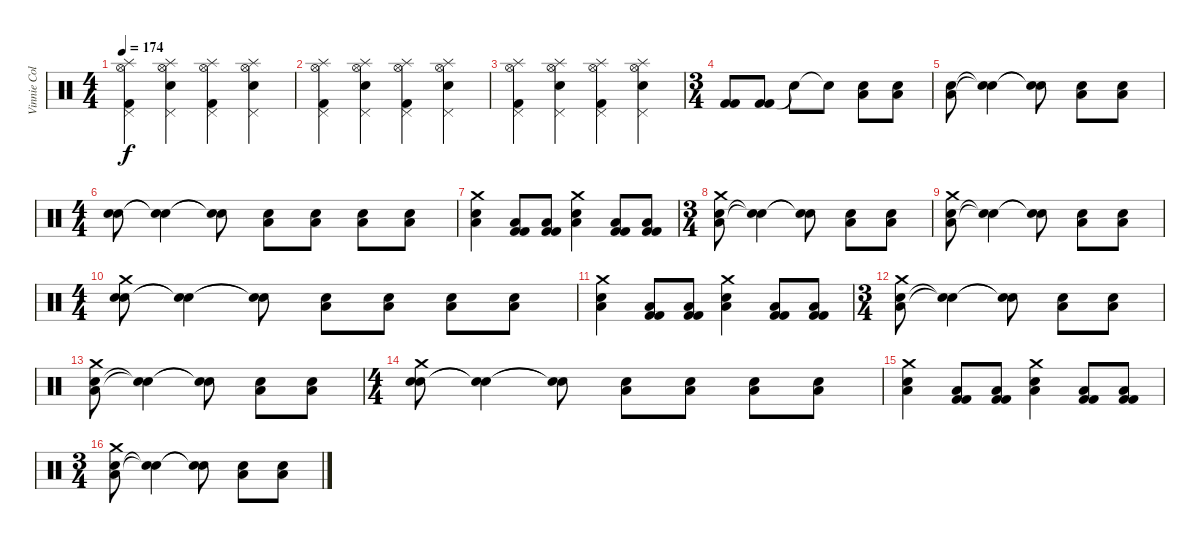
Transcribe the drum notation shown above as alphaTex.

\track ("Vinnie Colaiuta" "Vinnie Col") {instrument percussion}
\staff {score}
\articulation defaults
\ts (4 4)
\tempo 174
\clef neutral
\ks c
("Splash (hit)" "Kick (hit) 2" "Pedal Hi-Hat (hit)" "Hi-Hat (open)").4{dy f} ("Splash (hit)" "Snare (hit) 2" "Pedal Hi-Hat (hit)" "Hi-Hat (open)").4 ("Splash (hit)" "Kick (hit) 2" "Pedal Hi-Hat (hit)" "Hi-Hat (open)").4 ("Splash (hit)" "Snare (hit) 2" "Pedal Hi-Hat (hit)" "Hi-Hat (open)").4 |
("Splash (hit)" "Kick (hit) 2" "Pedal Hi-Hat (hit)" "Hi-Hat (open)").4 ("Splash (hit)" "Snare (hit) 2" "Pedal Hi-Hat (hit)" "Hi-Hat (open)").4 ("Splash (hit)" "Kick (hit) 2" "Pedal Hi-Hat (hit)" "Hi-Hat (open)").4 ("Splash (hit)" "Snare (hit) 2" "Pedal Hi-Hat (hit)" "Hi-Hat (open)").4 |
("Splash (hit)" "Kick (hit) 2" "Pedal Hi-Hat (hit)" "Hi-Hat (open)").4 ("Splash (hit)" "Snare (hit) 2" "Pedal Hi-Hat (hit)" "Hi-Hat (open)").4 ("Splash (hit)" "Kick (hit) 2" "Pedal Hi-Hat (hit)" "Hi-Hat (open)").4 ("Splash (hit)" "Snare (hit) 2" "Pedal Hi-Hat (hit)" "Hi-Hat (open)").4 |
\ts (3 4)
("Kick (hit) 2" "Kick (hit) 2").8 ("Kick (hit) 2" "Kick (hit) 2").8 "Snare (hit) 2"{t}.8 "Snare (hit) 2"{t}.8 ("Snare (hit) 2" "Low Tom (hit)").8 ("Snare (hit) 2" "Low Tom (hit)").8 |
("Snare (hit) 2" "Low Tom (hit)").8 ("Snare (hit) 2"{t} "Snare (hit) 2"{t}).4 ("Snare (hit) 2"{t} "Snare (hit) 2"{t}).8 ("Snare (hit) 2" "Low Tom (hit)").8 ("Snare (hit) 2" "Low Tom (hit)").8 |
\ts (4 4)
("Snare (hit) 2" "Snare (hit) 2").8 ("Snare (hit) 2"{t} "Snare (hit) 2"{t}).4 ("Snare (hit) 2"{t} "Snare (hit) 2"{t}).8 ("Snare (hit) 2" "Low Tom (hit)").8 ("Snare (hit) 2" "Low Tom (hit)").8 ("Snare (hit) 2" "Low Tom (hit)").8 ("Snare (hit) 2" "Low Tom (hit)").8 |
("Snare (hit) 2" "Low Tom (hit)" "Crash medium (hit)").4 ("Kick (hit) 2" "Kick (hit) 2" "Low Tom (hit)").8 ("Kick (hit) 2" "Kick (hit) 2" "Low Tom (hit)").8 ("Snare (hit) 2" "Low Tom (hit)" "Crash medium (hit)").4 ("Kick (hit) 2" "Kick (hit) 2" "Low Tom (hit)").8 ("Kick (hit) 2" "Kick (hit) 2" "Low Tom (hit)").8 |
\ts (3 4)
("Snare (hit) 2" "Low Tom (hit)" "Crash medium (hit)").8 ("Snare (hit) 2"{t} "Snare (hit) 2"{t}).4 ("Snare (hit) 2"{t} "Snare (hit) 2"{t}).8 ("Snare (hit) 2" "Low Tom (hit)").8 ("Snare (hit) 2" "Low Tom (hit)").8 |
("Snare (hit) 2" "Low Tom (hit)" "Crash medium (hit)").8 ("Snare (hit) 2"{t} "Snare (hit) 2"{t}).4 ("Snare (hit) 2"{t} "Snare (hit) 2"{t}).8 ("Snare (hit) 2" "Low Tom (hit)").8 ("Snare (hit) 2" "Low Tom (hit)").8 |
\ts (4 4)
("Snare (hit) 2" "Snare (hit) 2" "Crash medium (hit)").8 ("Snare (hit) 2"{t} "Snare (hit) 2"{t}).4 ("Snare (hit) 2"{t} "Snare (hit) 2"{t}).8 ("Snare (hit) 2" "Low Tom (hit)").8 ("Snare (hit) 2" "Low Tom (hit)").8 ("Snare (hit) 2" "Low Tom (hit)").8 ("Snare (hit) 2" "Low Tom (hit)").8 |
("Snare (hit) 2" "Low Tom (hit)" "Crash medium (hit)").4 ("Kick (hit) 2" "Kick (hit) 2" "Low Tom (hit)").8 ("Kick (hit) 2" "Kick (hit) 2" "Low Tom (hit)").8 ("Snare (hit) 2" "Low Tom (hit)" "Crash medium (hit)").4 ("Kick (hit) 2" "Kick (hit) 2" "Low Tom (hit)").8 ("Kick (hit) 2" "Kick (hit) 2" "Low Tom (hit)").8 |
\ts (3 4)
("Snare (hit) 2" "Low Tom (hit)" "Crash medium (hit)").8 ("Snare (hit) 2"{t} "Snare (hit) 2"{t}).4 ("Snare (hit) 2"{t} "Snare (hit) 2"{t}).8 ("Snare (hit) 2" "Low Tom (hit)").8 ("Snare (hit) 2" "Low Tom (hit)").8 |
("Snare (hit) 2" "Low Tom (hit)" "Crash medium (hit)").8 ("Snare (hit) 2"{t} "Snare (hit) 2"{t}).4 ("Snare (hit) 2"{t} "Snare (hit) 2"{t}).8 ("Snare (hit) 2" "Low Tom (hit)").8 ("Snare (hit) 2" "Low Tom (hit)").8 |
\ts (4 4)
("Snare (hit) 2" "Snare (hit) 2" "Crash medium (hit)").8 ("Snare (hit) 2"{t} "Snare (hit) 2"{t}).4 ("Snare (hit) 2"{t} "Snare (hit) 2"{t}).8 ("Snare (hit) 2" "Low Tom (hit)").8 ("Snare (hit) 2" "Low Tom (hit)").8 ("Snare (hit) 2" "Low Tom (hit)").8 ("Snare (hit) 2" "Low Tom (hit)").8 |
("Snare (hit) 2" "Low Tom (hit)" "Crash medium (hit)").4 ("Kick (hit) 2" "Kick (hit) 2" "Low Tom (hit)").8 ("Kick (hit) 2" "Kick (hit) 2" "Low Tom (hit)").8 ("Snare (hit) 2" "Low Tom (hit)" "Crash medium (hit)").4 ("Kick (hit) 2" "Kick (hit) 2" "Low Tom (hit)").8 ("Kick (hit) 2" "Kick (hit) 2" "Low Tom (hit)").8 |
\ts (3 4)
("Snare (hit) 2" "Low Tom (hit)" "Crash medium (hit)").8 ("Snare (hit) 2"{t} "Snare (hit) 2"{t}).4 ("Snare (hit) 2"{t} "Snare (hit) 2"{t}).8 ("Snare (hit) 2" "Low Tom (hit)").8 ("Snare (hit) 2" "Low Tom (hit)").8
